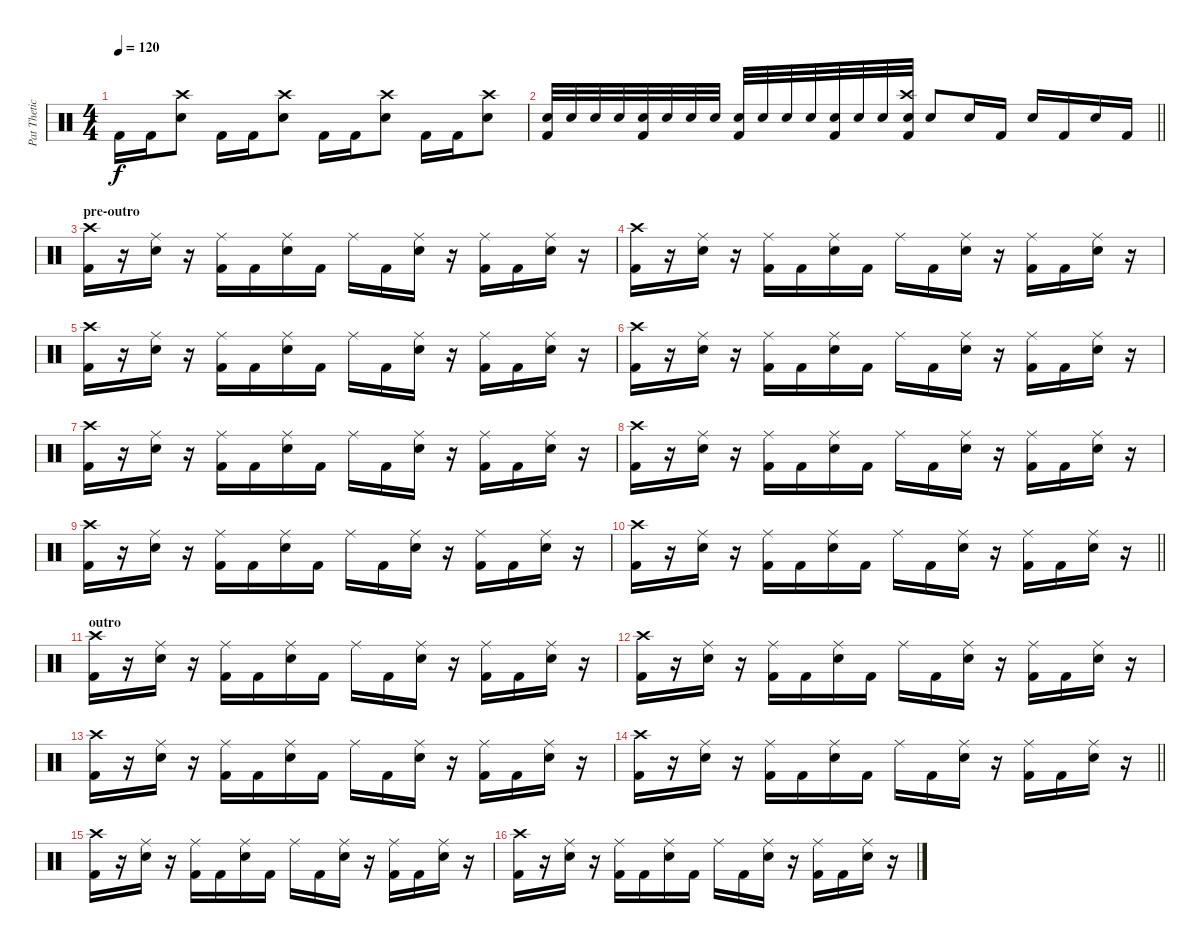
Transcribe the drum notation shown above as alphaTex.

\track ("Pat Thetic" "Pat Thetic") {instrument percussion}
\staff {score}
\articulation defaults
\ts (4 4)
\tempo 120
\clef neutral
\ks c "Kick (hit) 2".16{dy f} "Kick (hit) 2".16
("Crash high (hit)" "Snare (hit) 2").8 "Kick (hit) 2".16 "Kick (hit) 2".16 ("Crash high (hit)" "Snare (hit) 2").8 "Kick (hit) 2".16 "Kick (hit) 2".16 ("Crash high (hit)" "Snare (hit) 2").8 "Kick (hit) 2".16 "Kick (hit) 2".16 ("Crash high (hit)" "Snare (hit) 2").8 |
\barLineRight lightlight
("Snare (hit) 2" "Kick (hit) 2").32 "Snare (hit) 2".32 "Snare (hit) 2".32 "Snare (hit) 2".32 ("Snare (hit) 2" "Kick (hit) 2").32 "Snare (hit) 2".32 "Snare (hit) 2".32 "Snare (hit) 2".32 ("Snare (hit) 2" "Kick (hit) 2").32 "Snare (hit) 2".32 "Snare (hit) 2".32 "Snare (hit) 2".32 ("Snare (hit) 2" "Kick (hit) 2").32 "Snare (hit) 2".32 "Snare (hit) 2".32 ("Crash high (hit)" "Snare (hit) 2" "Kick (hit) 2").32 "Snare (hit) 2".8 "Snare (hit) 2".16 "Kick (hit) 2".16 "Snare (hit) 2".16 "Kick (hit) 2".16 "Snare (hit) 2".16 "Kick (hit) 2".16 |
\section ("" "pre-outro")
("Crash high (hit)" "Kick (hit) 2").16 r.16 ("Ride (middle)" "Snare (hit) 2").16 r.16 ("Ride (middle)" "Kick (hit) 2").16 "Kick (hit) 2".16 ("Ride (middle)" "Snare (hit) 2").16 "Kick (hit) 2".16 "Ride (middle)".16 "Kick (hit) 2".16 ("Ride (middle)" "Snare (hit) 2").16 r.16 ("Ride (middle)" "Kick (hit) 2").16 "Kick (hit) 2".16 ("Ride (middle)" "Snare (hit) 2").16 r.16 |
("Crash high (hit)" "Kick (hit) 2").16 r.16 ("Ride (middle)" "Snare (hit) 2").16 r.16 ("Ride (middle)" "Kick (hit) 2").16 "Kick (hit) 2".16 ("Ride (middle)" "Snare (hit) 2").16 "Kick (hit) 2".16 "Ride (middle)".16 "Kick (hit) 2".16 ("Ride (middle)" "Snare (hit) 2").16 r.16 ("Ride (middle)" "Kick (hit) 2").16 "Kick (hit) 2".16 ("Ride (middle)" "Snare (hit) 2").16 r.16 |
("Crash high (hit)" "Kick (hit) 2").16 r.16 ("Ride (middle)" "Snare (hit) 2").16 r.16 ("Ride (middle)" "Kick (hit) 2").16 "Kick (hit) 2".16 ("Ride (middle)" "Snare (hit) 2").16 "Kick (hit) 2".16 "Ride (middle)".16 "Kick (hit) 2".16 ("Ride (middle)" "Snare (hit) 2").16 r.16 ("Ride (middle)" "Kick (hit) 2").16 "Kick (hit) 2".16 ("Ride (middle)" "Snare (hit) 2").16 r.16 |
("Crash high (hit)" "Kick (hit) 2").16 r.16 ("Ride (middle)" "Snare (hit) 2").16 r.16 ("Ride (middle)" "Kick (hit) 2").16 "Kick (hit) 2".16 ("Ride (middle)" "Snare (hit) 2").16 "Kick (hit) 2".16 "Ride (middle)".16 "Kick (hit) 2".16 ("Ride (middle)" "Snare (hit) 2").16 r.16 ("Ride (middle)" "Kick (hit) 2").16 "Kick (hit) 2".16 ("Ride (middle)" "Snare (hit) 2").16 r.16 |
("Crash high (hit)" "Kick (hit) 2").16 r.16 ("Ride (middle)" "Snare (hit) 2").16 r.16 ("Ride (middle)" "Kick (hit) 2").16 "Kick (hit) 2".16 ("Ride (middle)" "Snare (hit) 2").16 "Kick (hit) 2".16 "Ride (middle)".16 "Kick (hit) 2".16 ("Ride (middle)" "Snare (hit) 2").16 r.16 ("Ride (middle)" "Kick (hit) 2").16 "Kick (hit) 2".16 ("Ride (middle)" "Snare (hit) 2").16 r.16 |
("Crash high (hit)" "Kick (hit) 2").16 r.16 ("Ride (middle)" "Snare (hit) 2").16 r.16 ("Ride (middle)" "Kick (hit) 2").16 "Kick (hit) 2".16 ("Ride (middle)" "Snare (hit) 2").16 "Kick (hit) 2".16 "Ride (middle)".16 "Kick (hit) 2".16 ("Ride (middle)" "Snare (hit) 2").16 r.16 ("Ride (middle)" "Kick (hit) 2").16 "Kick (hit) 2".16 ("Ride (middle)" "Snare (hit) 2").16 r.16 |
("Crash high (hit)" "Kick (hit) 2").16 r.16 ("Ride (middle)" "Snare (hit) 2").16 r.16 ("Ride (middle)" "Kick (hit) 2").16 "Kick (hit) 2".16 ("Ride (middle)" "Snare (hit) 2").16 "Kick (hit) 2".16 "Ride (middle)".16 "Kick (hit) 2".16 ("Ride (middle)" "Snare (hit) 2").16 r.16 ("Ride (middle)" "Kick (hit) 2").16 "Kick (hit) 2".16 ("Ride (middle)" "Snare (hit) 2").16 r.16 |
\barLineRight lightlight
("Crash high (hit)" "Kick (hit) 2").16 r.16 ("Ride (middle)" "Snare (hit) 2").16 r.16 ("Ride (middle)" "Kick (hit) 2").16 "Kick (hit) 2".16 ("Ride (middle)" "Snare (hit) 2").16 "Kick (hit) 2".16 "Ride (middle)".16 "Kick (hit) 2".16 ("Ride (middle)" "Snare (hit) 2").16 r.16 ("Ride (middle)" "Kick (hit) 2").16 "Kick (hit) 2".16 ("Ride (middle)" "Snare (hit) 2").16 r.16 |
\section ("" "outro")
("Crash high (hit)" "Kick (hit) 2").16 r.16 ("Ride (middle)" "Snare (hit) 2").16 r.16 ("Ride (middle)" "Kick (hit) 2").16 "Kick (hit) 2".16 ("Ride (middle)" "Snare (hit) 2").16 "Kick (hit) 2".16 "Ride (middle)".16 "Kick (hit) 2".16 ("Ride (middle)" "Snare (hit) 2").16 r.16 ("Ride (middle)" "Kick (hit) 2").16 "Kick (hit) 2".16 ("Ride (middle)" "Snare (hit) 2").16 r.16 |
("Crash high (hit)" "Kick (hit) 2").16 r.16 ("Ride (middle)" "Snare (hit) 2").16 r.16 ("Ride (middle)" "Kick (hit) 2").16 "Kick (hit) 2".16 ("Ride (middle)" "Snare (hit) 2").16 "Kick (hit) 2".16 "Ride (middle)".16 "Kick (hit) 2".16 ("Ride (middle)" "Snare (hit) 2").16 r.16 ("Ride (middle)" "Kick (hit) 2").16 "Kick (hit) 2".16 ("Ride (middle)" "Snare (hit) 2").16 r.16 |
("Crash high (hit)" "Kick (hit) 2").16 r.16 ("Ride (middle)" "Snare (hit) 2").16 r.16 ("Ride (middle)" "Kick (hit) 2").16 "Kick (hit) 2".16 ("Ride (middle)" "Snare (hit) 2").16 "Kick (hit) 2".16 "Ride (middle)".16 "Kick (hit) 2".16 ("Ride (middle)" "Snare (hit) 2").16 r.16 ("Ride (middle)" "Kick (hit) 2").16 "Kick (hit) 2".16 ("Ride (middle)" "Snare (hit) 2").16 r.16 |
\barLineRight lightlight
("Crash high (hit)" "Kick (hit) 2").16 r.16 ("Ride (middle)" "Snare (hit) 2").16 r.16 ("Ride (middle)" "Kick (hit) 2").16 "Kick (hit) 2".16 ("Ride (middle)" "Snare (hit) 2").16 "Kick (hit) 2".16 "Ride (middle)".16 "Kick (hit) 2".16 ("Ride (middle)" "Snare (hit) 2").16 r.16 ("Ride (middle)" "Kick (hit) 2").16 "Kick (hit) 2".16 ("Ride (middle)" "Snare (hit) 2").16 r.16 |
("Crash high (hit)" "Kick (hit) 2").16 r.16 ("Ride (middle)" "Snare (hit) 2").16 r.16 ("Ride (middle)" "Kick (hit) 2").16 "Kick (hit) 2".16 ("Ride (middle)" "Snare (hit) 2").16 "Kick (hit) 2".16 "Ride (middle)".16 "Kick (hit) 2".16 ("Ride (middle)" "Snare (hit) 2").16 r.16 ("Ride (middle)" "Kick (hit) 2").16 "Kick (hit) 2".16 ("Ride (middle)" "Snare (hit) 2").16 r.16 |
("Crash high (hit)" "Kick (hit) 2").16 r.16 ("Ride (middle)" "Snare (hit) 2").16 r.16 ("Ride (middle)" "Kick (hit) 2").16 "Kick (hit) 2".16 ("Ride (middle)" "Snare (hit) 2").16 "Kick (hit) 2".16 "Ride (middle)".16 "Kick (hit) 2".16 ("Ride (middle)" "Snare (hit) 2").16 r.16 ("Ride (middle)" "Kick (hit) 2").16 "Kick (hit) 2".16 ("Ride (middle)" "Snare (hit) 2").16 r.16
